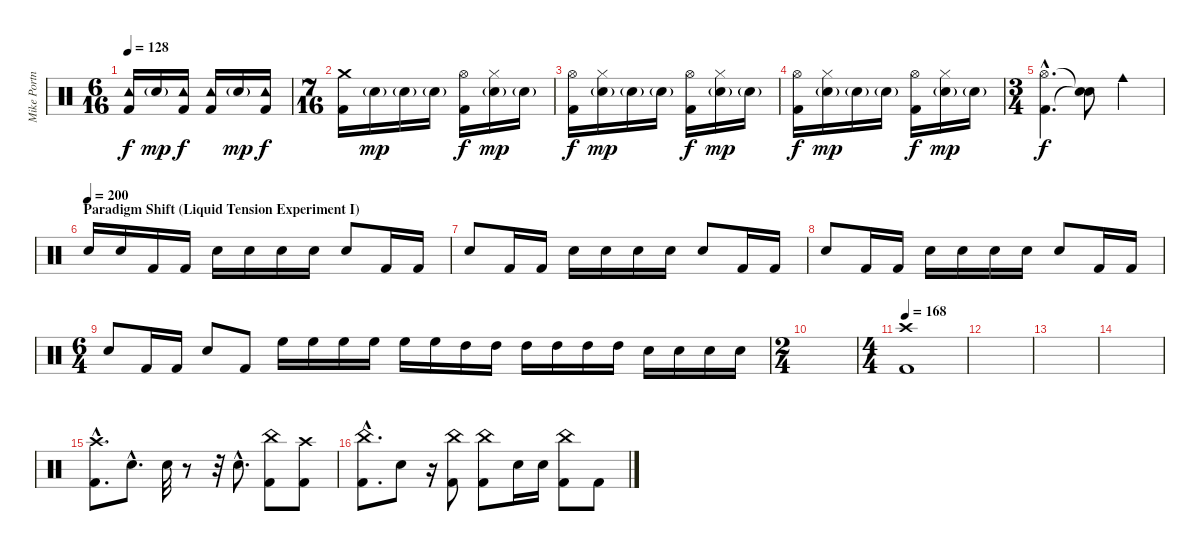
\track ("Mike Portnoy Drums" "Mike Portn") {instrument percussion}
\staff {score}
\articulation defaults
\ts (6 16)
\tempo 128
\clef neutral
\ks c
("Tambourine (hit)" "Kick (hit) 2").16{dy f} "Snare (hit) 2"{g}.16{dy mp} ("Tambourine (hit)" "Kick (hit) 2").16{dy f} ("Tambourine (hit)" "Kick (hit) 2").16 "Snare (hit) 2"{g}.16{dy mp} ("Tambourine (hit)" "Kick (hit) 2").16{dy f} |
\ts (7 16)
("Crash medium (hit)" "Kick (hit) 2").16 "Snare (hit) 2"{g}.16{dy mp} "Snare (hit) 2"{g}.16 "Snare (hit) 2"{g}.16 ("Hi-Hat (open)" "Kick (hit) 2").16{dy f} ("Hi-Hat (closed)" "Snare (hit) 2"{g}).16{dy mp} "Snare (hit) 2"{g}.16 |
("Hi-Hat (open)" "Kick (hit) 2").16{dy f} ("Hi-Hat (closed)" "Snare (hit) 2"{g}).16{dy mp} "Snare (hit) 2"{g}.16 "Snare (hit) 2"{g}.16 ("Hi-Hat (open)" "Kick (hit) 2").16{dy f} ("Hi-Hat (closed)" "Snare (hit) 2"{g}).16{dy mp} "Snare (hit) 2"{g}.16 |
("Hi-Hat (open)" "Kick (hit) 2").16{dy f} ("Hi-Hat (closed)" "Snare (hit) 2"{g}).16{dy mp} "Snare (hit) 2"{g}.16 "Snare (hit) 2"{g}.16 ("Hi-Hat (open)" "Kick (hit) 2").16{dy f} ("Hi-Hat (closed)" "Snare (hit) 2"{g}).16{dy mp} "Snare (hit) 2"{g}.16 |
\ts (3 4)
("Hi-Hat (open)"{hac} "Kick (hit) 2"{hac}).4{d dy f} ("Snare (hit)"{t} "Snare (hit)"{t}).8 "Cowbell medium (hit)".4 |
\section ("" "Paradigm Shift (Liquid Tension Experiment I)")
\tempo (200)
"Electric Snare (hit)".16 "Electric Snare (hit)".16 "Kick (hit) 2".16 "Kick (hit) 2".16 "Electric Snare (hit)".16 "Electric Snare (hit)".16 "Electric Snare (hit)".16 "Electric Snare (hit)".16 "Electric Snare (hit)".8 "Kick (hit) 2".16 "Kick (hit) 2".16 |
"Electric Snare (hit)".8 "Kick (hit) 2".16 "Kick (hit) 2".16 "Electric Snare (hit)".16 "Electric Snare (hit)".16 "Electric Snare (hit)".16 "Electric Snare (hit)".16 "Electric Snare (hit)".8 "Kick (hit) 2".16 "Kick (hit) 2".16 |
"Electric Snare (hit)".8 "Kick (hit) 2".16 "Kick (hit) 2".16 "Electric Snare (hit)".16 "Electric Snare (hit)".16 "Electric Snare (hit)".16 "Electric Snare (hit)".16 "Electric Snare (hit)".8 "Kick (hit) 2".16 "Kick (hit) 2".16 |
\ts (6 4)
"Electric Snare (hit)".8 "Kick (hit) 2".16 "Kick (hit) 2".16 "Electric Snare (hit)".8 "Kick (hit) 2".8 "High Floor Tom (hit)".16 "High Floor Tom (hit)".16 "High Floor Tom (hit)".16 "High Floor Tom (hit)".16 "High Floor Tom (hit)".16 "High Floor Tom (hit)".16 "High Tom (hit)".16 "High Tom (hit)".16 "High Tom (hit)".16 "High Tom (hit)".16 "High Tom (hit)".16 "High Tom (hit)".16 "Electric Snare (hit)".16 "Electric Snare (hit)".16 "Electric Snare (hit)".16 "Electric Snare (hit)".16 |
\ts (2 4)
|
\ts (4 4)
\tempo 168
("Crash high (hit)" "Kick (hit) 2").1 |
|
|
|
("Kick (hit) 2"{hac} "Crash high (hit)"{hac}).8{d} "Electric Snare (hit)"{hac}.8{d} "Electric Snare (hit)".32 r.8 r.32 "Electric Snare (hit)"{hac}.8{d} ("Kick (hit) 2" "China (hit)").8 ("Kick (hit) 2" "Crash high (hit)").8 |
("China (hit)"{hac} "Kick (hit) 2"{hac}).8{d} "Electric Snare (hit)".8 r.16 ("Kick (hit) 2" "China (hit)").8 ("Kick (hit) 2" "China (hit)").8 "Electric Snare (hit)".16 "Electric Snare (hit)".16 ("Kick (hit) 2" "China (hit)").8 "Kick (hit) 2".8
